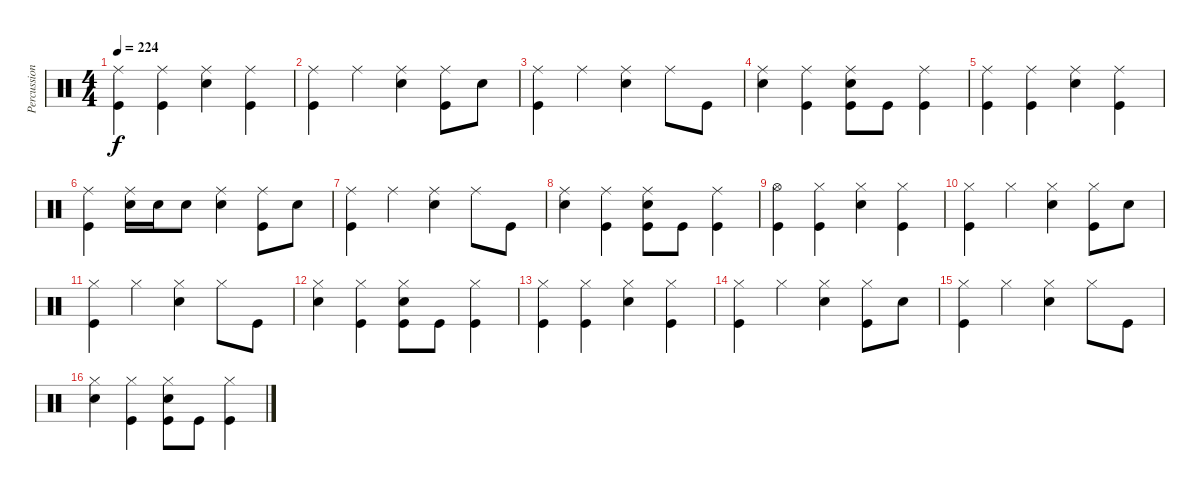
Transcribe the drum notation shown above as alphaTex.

\track ("Percussion" "Percussion") {instrument percussion}
\staff {score}
\articulation defaults
\ts (4 4)
\tempo 224
\clef neutral
\ks c
("Ride (middle)" "Kick (hit)").4{dy f} ("Ride (middle)" "Kick (hit)").4 ("Ride (middle)" "Electric Snare (hit)").4 ("Ride (middle)" "Kick (hit)").4 |
("Ride (middle)" "Kick (hit)").4 "Ride (middle)".4 ("Ride (middle)" "Electric Snare (hit)").4 ("Ride (middle)" "Kick (hit)").8 "Electric Snare (hit)".8 |
("Ride (middle)" "Kick (hit)").4 "Ride (middle)".4 ("Ride (middle)" "Electric Snare (hit)").4 "Ride (middle)".8 "Kick (hit)".8 |
("Ride (middle)" "Electric Snare (hit)").4 ("Ride (middle)" "Kick (hit)").4 ("Ride (middle)" "Electric Snare (hit)" "Kick (hit)").8 "Kick (hit)".8 ("Ride (middle)" "Kick (hit)").4 |
("Ride (middle)" "Kick (hit)").4 ("Ride (middle)" "Kick (hit)").4 ("Ride (middle)" "Electric Snare (hit)").4 ("Ride (middle)" "Kick (hit)").4 |
("Ride (middle)" "Kick (hit)").4 ("Ride (middle)" "Electric Snare (hit)").16 "Electric Snare (hit)".16 "Electric Snare (hit)".8 ("Ride (middle)" "Electric Snare (hit)").4 ("Ride (middle)" "Kick (hit)").8 "Electric Snare (hit)".8 |
("Ride (middle)" "Kick (hit)").4 "Ride (middle)".4 ("Ride (middle)" "Electric Snare (hit)").4 "Ride (middle)".8 "Kick (hit)".8 |
("Ride (middle)" "Electric Snare (hit)").4 ("Ride (middle)" "Kick (hit)").4 ("Ride (middle)" "Electric Snare (hit)" "Kick (hit)").8 "Kick (hit)".8 ("Ride (middle)" "Kick (hit)").4 |
("Hi-Hat (open)" "Kick (hit)").4 ("Hi-Hat (closed)" "Kick (hit)").4 ("Hi-Hat (closed)" "Electric Snare (hit)").4 ("Hi-Hat (closed)" "Kick (hit)").4 |
("Hi-Hat (closed)" "Kick (hit)").4 "Hi-Hat (closed)".4 ("Hi-Hat (closed)" "Electric Snare (hit)").4 ("Hi-Hat (closed)" "Kick (hit)").8 "Electric Snare (hit)".8 |
("Hi-Hat (closed)" "Kick (hit)").4 "Hi-Hat (closed)".4 ("Hi-Hat (closed)" "Electric Snare (hit)").4 "Hi-Hat (closed)".8 "Kick (hit)".8 |
("Hi-Hat (closed)" "Electric Snare (hit)").4 ("Hi-Hat (closed)" "Kick (hit)").4 ("Hi-Hat (closed)" "Electric Snare (hit)" "Kick (hit)").8 "Kick (hit)".8 ("Hi-Hat (closed)" "Kick (hit)").4 |
("Hi-Hat (closed)" "Kick (hit)").4 ("Hi-Hat (closed)" "Kick (hit)").4 ("Hi-Hat (closed)" "Electric Snare (hit)").4 ("Hi-Hat (closed)" "Kick (hit)").4 |
("Hi-Hat (closed)" "Kick (hit)").4 "Hi-Hat (closed)".4 ("Hi-Hat (closed)" "Electric Snare (hit)").4 ("Hi-Hat (closed)" "Kick (hit)").8 "Electric Snare (hit)".8 |
("Hi-Hat (closed)" "Kick (hit)").4 "Hi-Hat (closed)".4 ("Hi-Hat (closed)" "Electric Snare (hit)").4 "Hi-Hat (closed)".8 "Kick (hit)".8 |
("Hi-Hat (closed)" "Electric Snare (hit)").4 ("Hi-Hat (closed)" "Kick (hit)").4 ("Hi-Hat (closed)" "Electric Snare (hit)" "Kick (hit)").8 "Kick (hit)".8 ("Hi-Hat (closed)" "Kick (hit)").4
